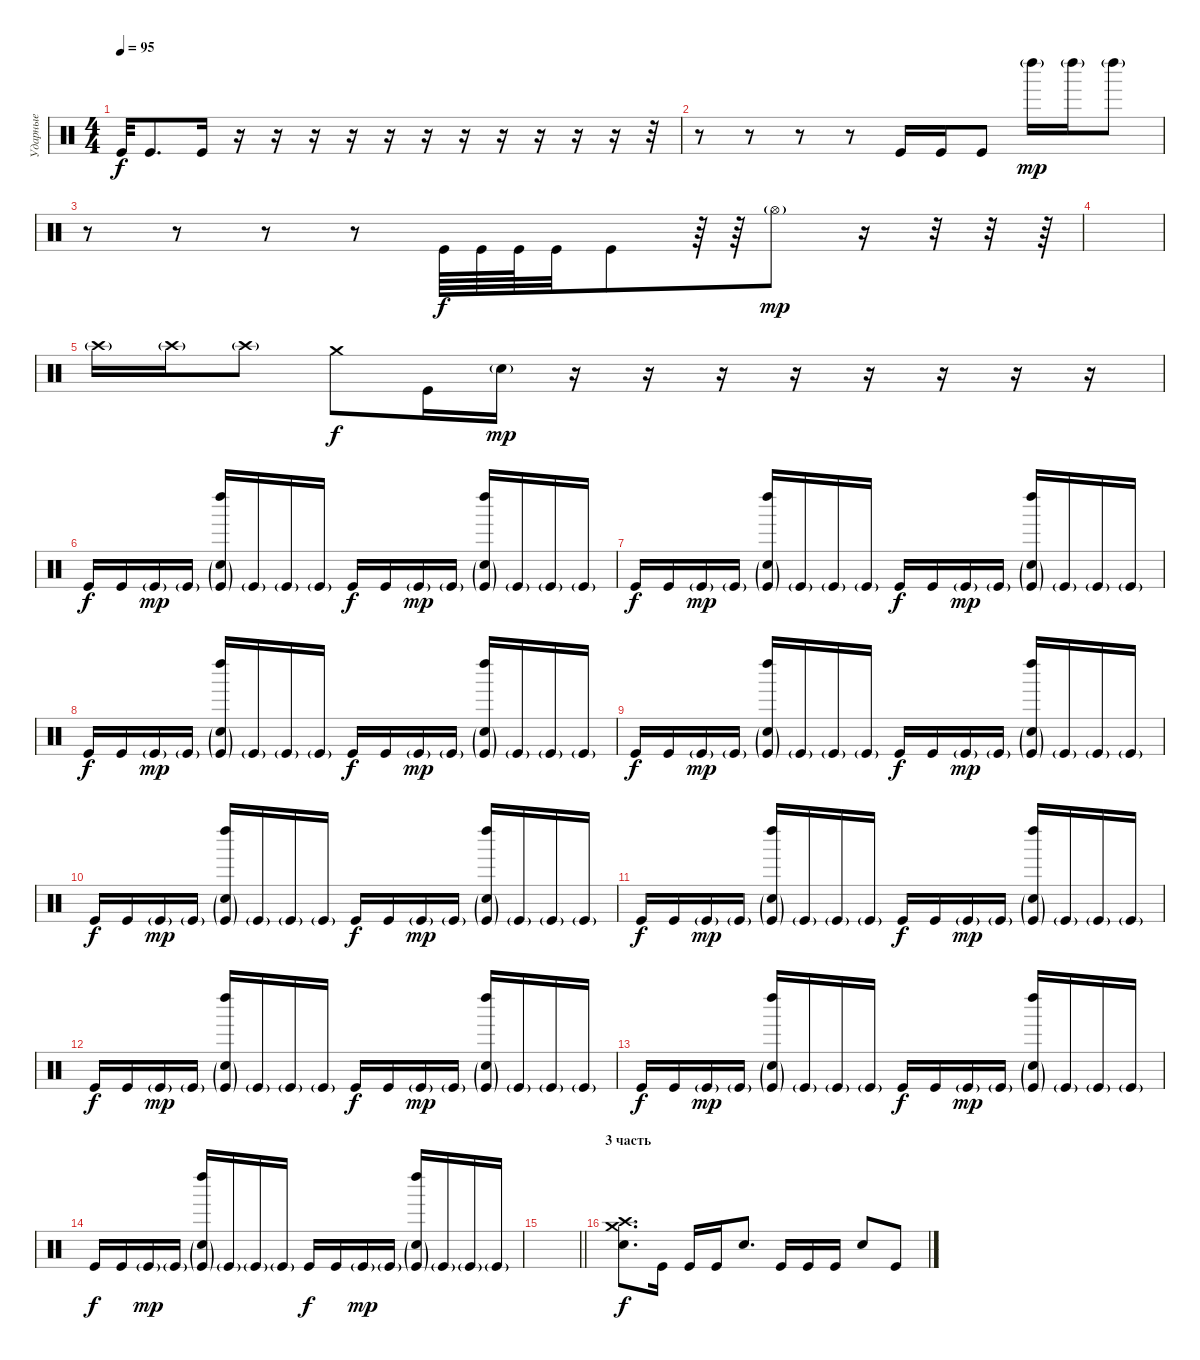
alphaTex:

\track ("Ударные" "Ударные") {instrument percussion}
\staff {score}
\articulation defaults
\ts (4 4)
\tempo 95
\clef neutral
\ks c "Kick (hit)".32{dy f} "Kick (hit)".8{d} "Kick (hit)".16
r.16 r.16 r.16 r.16 r.16 r.16 r.16 r.16 r.16 r.16 r.16 r.32 |
r.8 r.8 r.8 r.8 "Kick (hit)".16 "Kick (hit)".16 "Kick (hit)".8 "Left Maraca (hit)"{g}.16{dy mp} "Left Maraca (hit)"{g}.16 "Left Maraca (hit)"{g}.8 |
r.8 r.8 r.8 r.8 "Kick (hit)".64{dy f} "Kick (hit)".64 "Kick (hit)".64 "Kick (hit)".32 "Kick (hit)".8 r.64 r.64 "Hi-Hat (open)"{g}.8{dy mp} r.16 r.32 r.32 r.64 |
|
"Crash high (hit)"{g}.16 "Crash high (hit)"{g}.16 "Crash high (hit)"{g}.8 "Crash medium (hit)".8{dy f} "Kick (hit)".16 "Electric Snare (hit)"{g}.16{dy mp} r.16 r.16 r.16 r.16 r.16 r.16 r.16 r.16 |
"Kick (hit)".16{dy f volume 10} "Kick (hit)".16 "Kick (hit)"{g}.16{dy mp} "Kick (hit)"{g}.16 ("Kick (hit)"{g} "Left Maraca (hit)" "Snare (hit) 2"{g}).16 "Kick (hit)"{g}.16 "Kick (hit)"{g}.16 "Kick (hit)"{g}.16 "Kick (hit)".16{dy f} "Kick (hit)".16 "Kick (hit)"{g}.16{dy mp} "Kick (hit)"{g}.16 ("Kick (hit)"{g} "Left Maraca (hit)" "Snare (hit) 2"{g}).16 "Kick (hit)"{g}.16 "Kick (hit)"{g}.16 "Kick (hit)"{g}.16 |
"Kick (hit)".16{dy f} "Kick (hit)".16 "Kick (hit)"{g}.16{dy mp} "Kick (hit)"{g}.16 ("Kick (hit)"{g} "Left Maraca (hit)" "Snare (hit) 2"{g}).16 "Kick (hit)"{g}.16 "Kick (hit)"{g}.16 "Kick (hit)"{g}.16 "Kick (hit)".16{dy f} "Kick (hit)".16 "Kick (hit)"{g}.16{dy mp} "Kick (hit)"{g}.16 ("Kick (hit)"{g} "Left Maraca (hit)" "Snare (hit) 2"{g}).16 "Kick (hit)"{g}.16 "Kick (hit)"{g}.16 "Kick (hit)"{g}.16 |
"Kick (hit)".16{dy f} "Kick (hit)".16 "Kick (hit)"{g}.16{dy mp} "Kick (hit)"{g}.16 ("Kick (hit)"{g} "Left Maraca (hit)" "Snare (hit) 2"{g}).16 "Kick (hit)"{g}.16 "Kick (hit)"{g}.16 "Kick (hit)"{g}.16 "Kick (hit)".16{dy f} "Kick (hit)".16 "Kick (hit)"{g}.16{dy mp} "Kick (hit)"{g}.16 ("Kick (hit)"{g} "Left Maraca (hit)" "Snare (hit) 2"{g}).16 "Kick (hit)"{g}.16 "Kick (hit)"{g}.16 "Kick (hit)"{g}.16 |
"Kick (hit)".16{dy f} "Kick (hit)".16 "Kick (hit)"{g}.16{dy mp} "Kick (hit)"{g}.16 ("Kick (hit)"{g} "Left Maraca (hit)" "Snare (hit) 2"{g}).16 "Kick (hit)"{g}.16 "Kick (hit)"{g}.16 "Kick (hit)"{g}.16 "Kick (hit)".16{dy f} "Kick (hit)".16 "Kick (hit)"{g}.16{dy mp} "Kick (hit)"{g}.16 ("Kick (hit)"{g} "Left Maraca (hit)" "Snare (hit) 2"{g}).16 "Kick (hit)"{g}.16 "Kick (hit)"{g}.16 "Kick (hit)"{g}.16 |
"Kick (hit)".16{dy f} "Kick (hit)".16 "Kick (hit)"{g}.16{dy mp} "Kick (hit)"{g}.16 ("Kick (hit)"{g} "Left Maraca (hit)" "Snare (hit) 2"{g}).16 "Kick (hit)"{g}.16 "Kick (hit)"{g}.16 "Kick (hit)"{g}.16 "Kick (hit)".16{dy f} "Kick (hit)".16 "Kick (hit)"{g}.16{dy mp} "Kick (hit)"{g}.16 ("Kick (hit)"{g} "Left Maraca (hit)" "Snare (hit) 2"{g}).16 "Kick (hit)"{g}.16 "Kick (hit)"{g}.16 "Kick (hit)"{g}.16 |
"Kick (hit)".16{dy f} "Kick (hit)".16 "Kick (hit)"{g}.16{dy mp} "Kick (hit)"{g}.16 ("Kick (hit)"{g} "Left Maraca (hit)" "Snare (hit) 2"{g}).16 "Kick (hit)"{g}.16 "Kick (hit)"{g}.16 "Kick (hit)"{g}.16 "Kick (hit)".16{dy f} "Kick (hit)".16 "Kick (hit)"{g}.16{dy mp} "Kick (hit)"{g}.16 ("Kick (hit)"{g} "Left Maraca (hit)" "Snare (hit) 2"{g}).16 "Kick (hit)"{g}.16 "Kick (hit)"{g}.16 "Kick (hit)"{g}.16 |
"Kick (hit)".16{dy f} "Kick (hit)".16 "Kick (hit)"{g}.16{dy mp} "Kick (hit)"{g}.16 ("Kick (hit)"{g} "Left Maraca (hit)" "Snare (hit) 2"{g}).16 "Kick (hit)"{g}.16 "Kick (hit)"{g}.16 "Kick (hit)"{g}.16 "Kick (hit)".16{dy f} "Kick (hit)".16 "Kick (hit)"{g}.16{dy mp} "Kick (hit)"{g}.16 ("Kick (hit)"{g} "Left Maraca (hit)" "Snare (hit) 2"{g}).16 "Kick (hit)"{g}.16 "Kick (hit)"{g}.16 "Kick (hit)"{g}.16 |
"Kick (hit)".16{dy f} "Kick (hit)".16 "Kick (hit)"{g}.16{dy mp} "Kick (hit)"{g}.16 ("Kick (hit)"{g} "Left Maraca (hit)" "Snare (hit) 2"{g}).16 "Kick (hit)"{g}.16 "Kick (hit)"{g}.16 "Kick (hit)"{g}.16 "Kick (hit)".16{dy f} "Kick (hit)".16 "Kick (hit)"{g}.16{dy mp} "Kick (hit)"{g}.16 ("Kick (hit)"{g} "Left Maraca (hit)" "Snare (hit) 2"{g}).16 "Kick (hit)"{g}.16 "Kick (hit)"{g}.16 "Kick (hit)"{g}.16 |
"Kick (hit)".16{dy f} "Kick (hit)".16 "Kick (hit)"{g}.16{dy mp} "Kick (hit)"{g}.16 ("Kick (hit)"{g} "Left Maraca (hit)" "Snare (hit) 2"{g}).16 "Kick (hit)"{g}.16 "Kick (hit)"{g}.16 "Kick (hit)"{g}.16 "Kick (hit)".16{dy f} "Kick (hit)".16 "Kick (hit)"{g}.16{dy mp} "Kick (hit)"{g}.16 ("Kick (hit)"{g} "Left Maraca (hit)" "Snare (hit) 2"{g}).16 "Kick (hit)"{g}.16 "Kick (hit)"{g}.16 "Kick (hit)"{g}.16 |
\barLineRight lightlight
|
\section ("" "3 часть")
("Crash high (hit)" "Snare (hit) 2" "Crash medium (hit)").8{d dy f volume 16} "Kick (hit)".16 "Kick (hit)".16 "Kick (hit)".16 "Snare (hit) 2".8{d} "Kick (hit)".16 "Kick (hit)".16 "Kick (hit)".16 "Snare (hit) 2".8 "Kick (hit)".8
